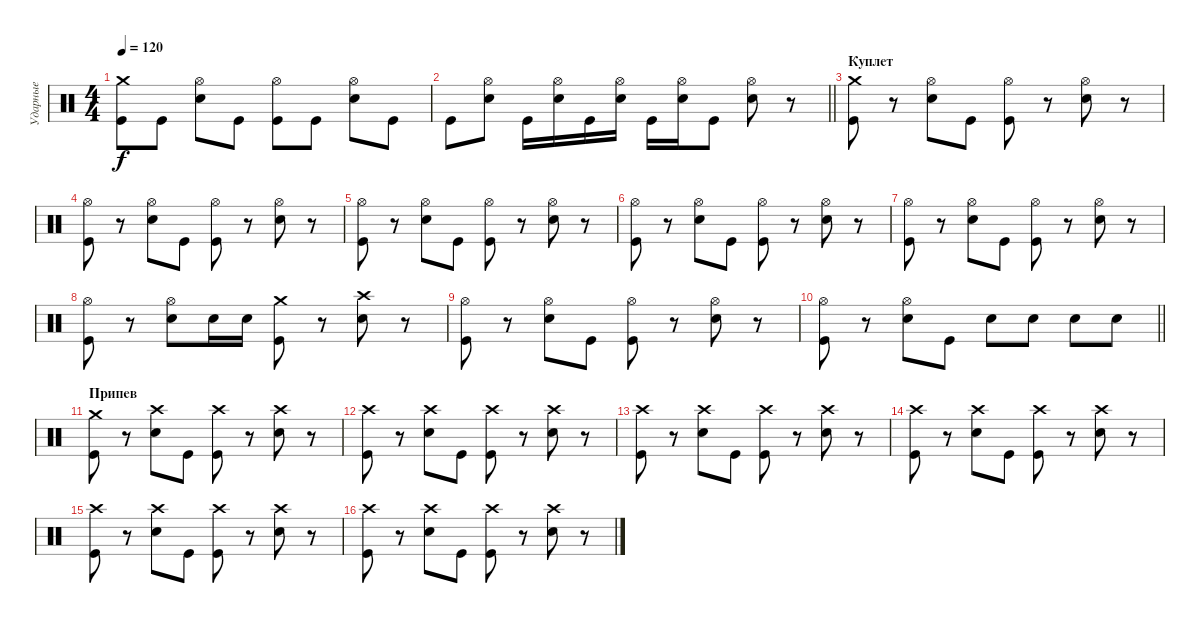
\track ("Ударные" "Ударные") {instrument percussion}
\staff {score}
\articulation defaults
\ts (4 4)
\tempo 120
\clef neutral
\ks c
("Crash medium (hit)" "Kick (hit)").8{dy f} "Kick (hit)".8 ("Hi-Hat (open)" "Electric Snare (hit)").8 "Kick (hit)".8 ("Hi-Hat (open)" "Kick (hit)").8 "Kick (hit)".8 ("Hi-Hat (open)" "Electric Snare (hit)").8 "Kick (hit)".8 |
\barLineRight lightlight "Kick (hit)".8
("Hi-Hat (open)" "Electric Snare (hit)").8 "Kick (hit)".16 ("Hi-Hat (open)" "Electric Snare (hit)").16 "Kick (hit)".16 ("Hi-Hat (open)" "Electric Snare (hit)").16 "Kick (hit)".16 ("Hi-Hat (open)" "Electric Snare (hit)").16 "Kick (hit)".8 ("Hi-Hat (open)" "Electric Snare (hit)").8 r.8 |
\section ("" "Куплет")
("Crash medium (hit)" "Kick (hit)").8 r.8 ("Hi-Hat (open)" "Electric Snare (hit)").8 "Kick (hit)".8 ("Hi-Hat (open)" "Kick (hit)").8 r.8 ("Hi-Hat (open)" "Electric Snare (hit)").8 r.8 |
("Hi-Hat (open)" "Kick (hit)").8 r.8 ("Hi-Hat (open)" "Electric Snare (hit)").8 "Kick (hit)".8 ("Hi-Hat (open)" "Kick (hit)").8 r.8 ("Hi-Hat (open)" "Electric Snare (hit)").8 r.8 |
("Hi-Hat (open)" "Kick (hit)").8 r.8 ("Hi-Hat (open)" "Electric Snare (hit)").8 "Kick (hit)".8 ("Hi-Hat (open)" "Kick (hit)").8 r.8 ("Hi-Hat (open)" "Electric Snare (hit)").8 r.8 |
("Hi-Hat (open)" "Kick (hit)").8 r.8 ("Hi-Hat (open)" "Electric Snare (hit)").8 "Kick (hit)".8 ("Hi-Hat (open)" "Kick (hit)").8 r.8 ("Hi-Hat (open)" "Electric Snare (hit)").8 r.8 |
("Hi-Hat (open)" "Kick (hit)").8 r.8 ("Hi-Hat (open)" "Electric Snare (hit)").8 "Kick (hit)".8 ("Hi-Hat (open)" "Kick (hit)").8 r.8 ("Hi-Hat (open)" "Electric Snare (hit)").8 r.8 |
("Hi-Hat (open)" "Kick (hit)").8 r.8 ("Hi-Hat (open)" "Electric Snare (hit)").8 "Electric Snare (hit)".16 "Electric Snare (hit)".16 ("Crash medium (hit)" "Kick (hit)").8 r.8 ("Crash high (hit)" "Electric Snare (hit)").8 r.8 |
("Hi-Hat (open)" "Kick (hit)").8 r.8 ("Hi-Hat (open)" "Electric Snare (hit)").8 "Kick (hit)".8 ("Hi-Hat (open)" "Kick (hit)").8 r.8 ("Hi-Hat (open)" "Electric Snare (hit)").8 r.8 |
\barLineRight lightlight
("Hi-Hat (open)" "Kick (hit)").8 r.8 ("Hi-Hat (open)" "Electric Snare (hit)").8 "Kick (hit)".8 "Electric Snare (hit)".8 "Electric Snare (hit)".8 "Electric Snare (hit)".8 "Electric Snare (hit)".8 |
\section ("" "Припев")
("Crash medium (hit)" "Kick (hit)").8 r.8 ("Crash high (hit)" "Electric Snare (hit)").8 "Kick (hit)".8 ("Crash high (hit)" "Kick (hit)").8 r.8 ("Crash high (hit)" "Electric Snare (hit)").8 r.8 |
("Crash high (hit)" "Kick (hit)").8 r.8 ("Crash high (hit)" "Electric Snare (hit)").8 "Kick (hit)".8 ("Crash high (hit)" "Kick (hit)").8 r.8 ("Crash high (hit)" "Electric Snare (hit)").8 r.8 |
("Crash high (hit)" "Kick (hit)").8 r.8 ("Crash high (hit)" "Electric Snare (hit)").8 "Kick (hit)".8 ("Crash high (hit)" "Kick (hit)").8 r.8 ("Crash high (hit)" "Electric Snare (hit)").8 r.8 |
("Crash high (hit)" "Kick (hit)").8 r.8 ("Crash high (hit)" "Electric Snare (hit)").8 "Kick (hit)".8 ("Crash high (hit)" "Kick (hit)").8 r.8 ("Crash high (hit)" "Electric Snare (hit)").8 r.8 |
("Crash high (hit)" "Kick (hit)").8 r.8 ("Crash high (hit)" "Electric Snare (hit)").8 "Kick (hit)".8 ("Crash high (hit)" "Kick (hit)").8 r.8 ("Crash high (hit)" "Electric Snare (hit)").8 r.8 |
("Crash high (hit)" "Kick (hit)").8 r.8 ("Crash high (hit)" "Electric Snare (hit)").8 "Kick (hit)".8 ("Crash high (hit)" "Kick (hit)").8 r.8 ("Crash high (hit)" "Electric Snare (hit)").8 r.8
